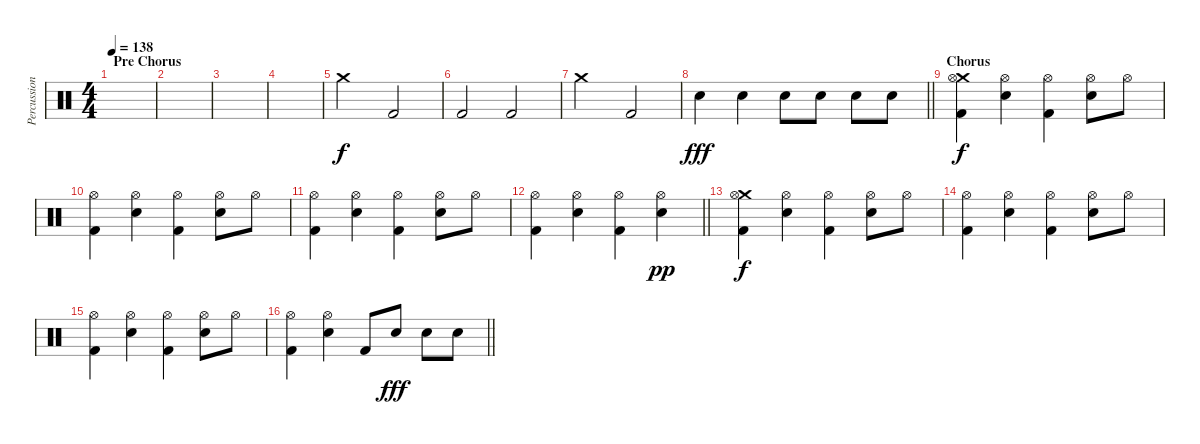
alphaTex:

\track ("Percussion" "Percussion") {instrument percussion}
\staff {score}
\articulation defaults
\ts (4 4)
\section ("" "Pre Chorus")
\tempo 138
\clef neutral
\ks c
|
|
|
|
"Crash medium (hit)".2{dy f} "Kick (hit) 2".2 |
"Kick (hit) 2".2 "Kick (hit) 2".2 |
"Crash medium (hit)".2 "Kick (hit) 2".2 |
\barLineRight lightlight "Snare (hit) 2".4{dy fff} "Snare (hit) 2".4 "Snare (hit) 2".8 "Snare (hit) 2".8 "Snare (hit) 2".8 "Snare (hit) 2".8
|
\section ("" "Chorus")
("Crash medium (hit)" "Hi-Hat (open)" "Kick (hit) 2").4{dy f} ("Snare (hit) 2" "Hi-Hat (open)").4 ("Hi-Hat (open)" "Kick (hit) 2").4 ("Snare (hit) 2" "Hi-Hat (open)").8 "Hi-Hat (open)".8 |
("Hi-Hat (open)" "Kick (hit) 2").4 ("Snare (hit) 2" "Hi-Hat (open)").4 ("Hi-Hat (open)" "Kick (hit) 2").4 ("Snare (hit) 2" "Hi-Hat (open)").8 "Hi-Hat (open)".8 |
("Hi-Hat (open)" "Kick (hit) 2").4 ("Snare (hit) 2" "Hi-Hat (open)").4 ("Hi-Hat (open)" "Kick (hit) 2").4 ("Snare (hit) 2" "Hi-Hat (open)").8 "Hi-Hat (open)".8 |
\barLineRight lightlight
("Hi-Hat (open)" "Kick (hit) 2").4 ("Snare (hit) 2" "Hi-Hat (open)").4 ("Hi-Hat (open)" "Kick (hit) 2").4 ("Snare (hit) 2" "Hi-Hat (open)").4{dy pp} |
("Crash medium (hit)" "Hi-Hat (open)" "Kick (hit) 2").4{dy f} ("Snare (hit) 2" "Hi-Hat (open)").4 ("Hi-Hat (open)" "Kick (hit) 2").4 ("Snare (hit) 2" "Hi-Hat (open)").8 "Hi-Hat (open)".8 |
("Hi-Hat (open)" "Kick (hit) 2").4 ("Snare (hit) 2" "Hi-Hat (open)").4 ("Hi-Hat (open)" "Kick (hit) 2").4 ("Snare (hit) 2" "Hi-Hat (open)").8 "Hi-Hat (open)".8 |
("Hi-Hat (open)" "Kick (hit) 2").4 ("Snare (hit) 2" "Hi-Hat (open)").4 ("Hi-Hat (open)" "Kick (hit) 2").4 ("Snare (hit) 2" "Hi-Hat (open)").8 "Hi-Hat (open)".8 |
\barLineRight lightlight
("Hi-Hat (open)" "Kick (hit) 2").4 ("Snare (hit) 2" "Hi-Hat (open)").4 "Kick (hit) 2".8 "Snare (hit) 2".8{dy fff} "Snare (hit) 2".8 "Snare (hit) 2".8
